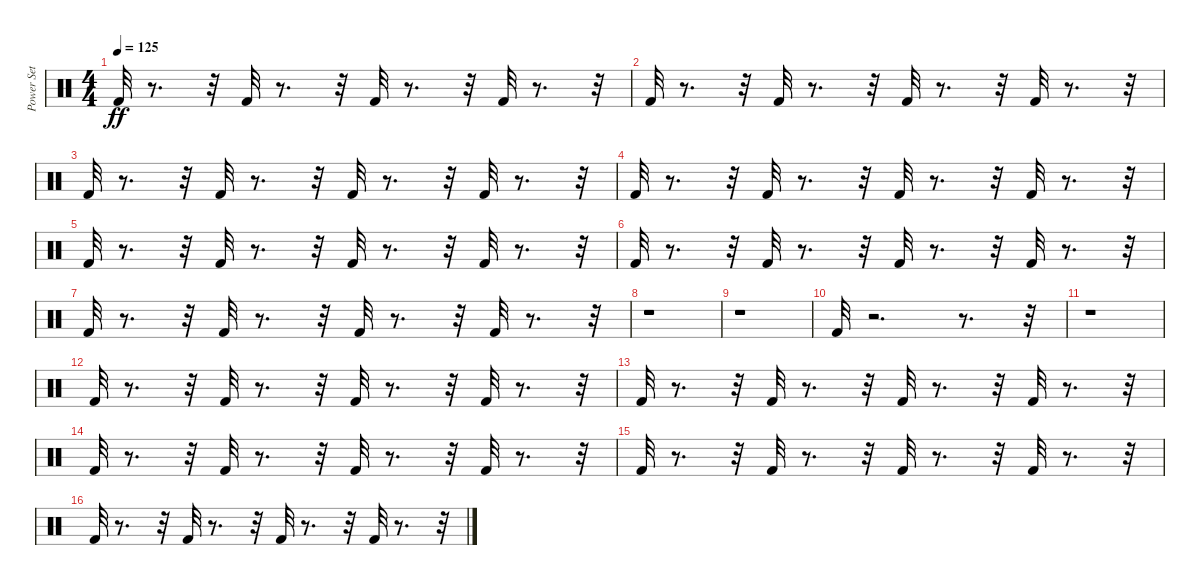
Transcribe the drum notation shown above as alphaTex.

\track ("Power Set" "Power Set") {instrument percussion}
\staff {score}
\articulation defaults
\ts (4 4)
\tempo 125
\clef neutral
\ks c "Kick (hit) 2".32{dy ff}
r.8{d} r.32 "Kick (hit) 2".32 r.8{d} r.32 "Kick (hit) 2".32 r.8{d} r.32 "Kick (hit) 2".32 r.8{d} r.32 |
"Kick (hit) 2".32 r.8{d} r.32 "Kick (hit) 2".32 r.8{d} r.32 "Kick (hit) 2".32 r.8{d} r.32 "Kick (hit) 2".32 r.8{d} r.32 |
"Kick (hit) 2".32 r.8{d} r.32 "Kick (hit) 2".32 r.8{d} r.32 "Kick (hit) 2".32 r.8{d} r.32 "Kick (hit) 2".32 r.8{d} r.32 |
"Kick (hit) 2".32 r.8{d} r.32 "Kick (hit) 2".32 r.8{d} r.32 "Kick (hit) 2".32 r.8{d} r.32 "Kick (hit) 2".32 r.8{d} r.32 |
"Kick (hit) 2".32 r.8{d} r.32 "Kick (hit) 2".32 r.8{d} r.32 "Kick (hit) 2".32 r.8{d} r.32 "Kick (hit) 2".32 r.8{d} r.32 |
"Kick (hit) 2".32 r.8{d} r.32 "Kick (hit) 2".32 r.8{d} r.32 "Kick (hit) 2".32 r.8{d} r.32 "Kick (hit) 2".32 r.8{d} r.32 |
"Kick (hit) 2".32 r.8{d} r.32 "Kick (hit) 2".32 r.8{d} r.32 "Kick (hit) 2".32 r.8{d} r.32 "Kick (hit) 2".32 r.8{d} r.32 |
r.1 |
r.1 |
"Kick (hit) 2".32 r.2{d} r.8{d} r.32 |
r.1 |
"Kick (hit) 2".32 r.8{d} r.32 "Kick (hit) 2".32 r.8{d} r.32 "Kick (hit) 2".32 r.8{d} r.32 "Kick (hit) 2".32 r.8{d} r.32 |
"Kick (hit) 2".32 r.8{d} r.32 "Kick (hit) 2".32 r.8{d} r.32 "Kick (hit) 2".32 r.8{d} r.32 "Kick (hit) 2".32 r.8{d} r.32 |
"Kick (hit) 2".32 r.8{d} r.32 "Kick (hit) 2".32 r.8{d} r.32 "Kick (hit) 2".32 r.8{d} r.32 "Kick (hit) 2".32 r.8{d} r.32 |
"Kick (hit) 2".32 r.8{d} r.32 "Kick (hit) 2".32 r.8{d} r.32 "Kick (hit) 2".32 r.8{d} r.32 "Kick (hit) 2".32 r.8{d} r.32 |
"Kick (hit) 2".32 r.8{d} r.32 "Kick (hit) 2".32 r.8{d} r.32 "Kick (hit) 2".32 r.8{d} r.32 "Kick (hit) 2".32 r.8{d} r.32
